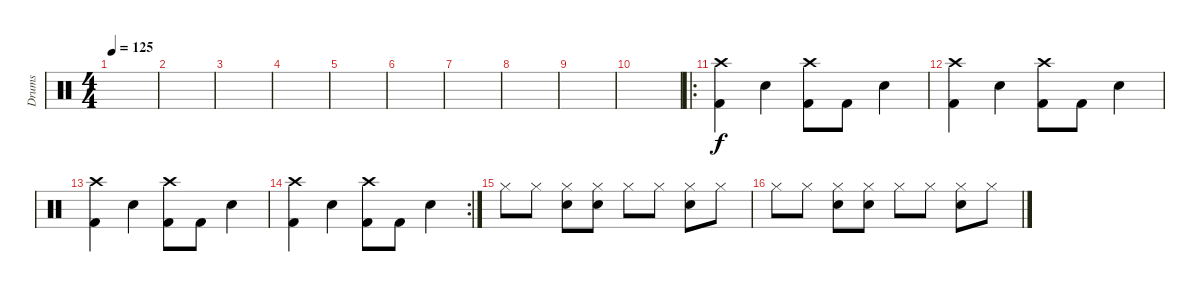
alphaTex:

\track ("Drums" "Drums") {instrument percussion}
\staff {score}
\articulation defaults
\ts (4 4)
\tempo 125
\clef neutral
\ks c
|
|
|
|
|
|
|
|
|
|
\ro
("Crash high (hit)" "Kick (hit) 2").4 "Snare (hit) 2".4 ("Crash high (hit)" "Kick (hit) 2").8 "Kick (hit) 2".8 "Snare (hit) 2".4 |
("Crash high (hit)" "Kick (hit) 2").4 "Snare (hit) 2".4 ("Crash high (hit)" "Kick (hit) 2").8 "Kick (hit) 2".8 "Snare (hit) 2".4 |
("Crash high (hit)" "Kick (hit) 2").4 "Snare (hit) 2".4 ("Crash high (hit)" "Kick (hit) 2").8 "Kick (hit) 2".8 "Snare (hit) 2".4 |
\rc 2
("Crash high (hit)" "Kick (hit) 2").4 "Snare (hit) 2".4 ("Crash high (hit)" "Kick (hit) 2").8 "Kick (hit) 2".8 "Snare (hit) 2".4 |
"Hi-Hat (closed)".8 "Hi-Hat (closed)".8 ("Snare (hit) 2" "Hi-Hat (closed)").8 ("Snare (hit) 2" "Hi-Hat (closed)").8 "Hi-Hat (closed)".8 "Hi-Hat (closed)".8 ("Snare (hit) 2" "Hi-Hat (closed)").8 "Hi-Hat (closed)".8 |
"Hi-Hat (closed)".8 "Hi-Hat (closed)".8 ("Snare (hit) 2" "Hi-Hat (closed)").8 ("Snare (hit) 2" "Hi-Hat (closed)").8 "Hi-Hat (closed)".8 "Hi-Hat (closed)".8 ("Snare (hit) 2" "Hi-Hat (closed)").8 "Hi-Hat (closed)".8
